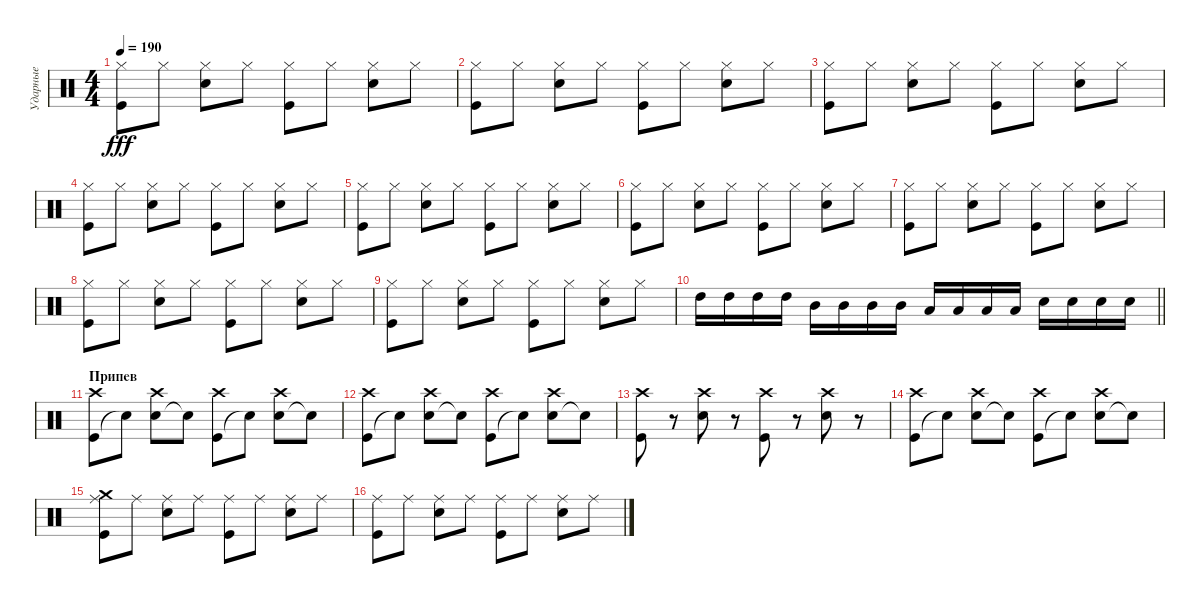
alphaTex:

\track ("Ударные" "Ударные") {instrument percussion}
\staff {score}
\articulation defaults
\ts (4 4)
\tempo 190
\clef neutral
\ks c
("Hi-Hat (closed)" "Kick (hit)").8{dy fff} "Hi-Hat (closed)".8 ("Hi-Hat (closed)" "Electric Snare (hit)").8 "Hi-Hat (closed)".8 ("Hi-Hat (closed)" "Kick (hit)").8 "Hi-Hat (closed)".8 ("Hi-Hat (closed)" "Electric Snare (hit)").8 "Hi-Hat (closed)".8 |
("Hi-Hat (closed)" "Kick (hit)").8 "Hi-Hat (closed)".8 ("Hi-Hat (closed)" "Electric Snare (hit)").8 "Hi-Hat (closed)".8 ("Hi-Hat (closed)" "Kick (hit)").8 "Hi-Hat (closed)".8 ("Hi-Hat (closed)" "Electric Snare (hit)").8 "Hi-Hat (closed)".8 |
("Hi-Hat (closed)" "Kick (hit)").8 "Hi-Hat (closed)".8 ("Hi-Hat (closed)" "Electric Snare (hit)").8 "Hi-Hat (closed)".8 ("Hi-Hat (closed)" "Kick (hit)").8 "Hi-Hat (closed)".8 ("Hi-Hat (closed)" "Electric Snare (hit)").8 "Hi-Hat (closed)".8 |
("Hi-Hat (closed)" "Kick (hit)").8 "Hi-Hat (closed)".8 ("Hi-Hat (closed)" "Electric Snare (hit)").8 "Hi-Hat (closed)".8 ("Hi-Hat (closed)" "Kick (hit)").8 "Hi-Hat (closed)".8 ("Hi-Hat (closed)" "Electric Snare (hit)").8 "Hi-Hat (closed)".8 |
("Hi-Hat (closed)" "Kick (hit)").8 "Hi-Hat (closed)".8 ("Hi-Hat (closed)" "Electric Snare (hit)").8 "Hi-Hat (closed)".8 ("Hi-Hat (closed)" "Kick (hit)").8 "Hi-Hat (closed)".8 ("Hi-Hat (closed)" "Electric Snare (hit)").8 "Hi-Hat (closed)".8 |
("Hi-Hat (closed)" "Kick (hit)").8 "Hi-Hat (closed)".8 ("Hi-Hat (closed)" "Electric Snare (hit)").8 "Hi-Hat (closed)".8 ("Hi-Hat (closed)" "Kick (hit)").8 "Hi-Hat (closed)".8 ("Hi-Hat (closed)" "Electric Snare (hit)").8 "Hi-Hat (closed)".8 |
("Hi-Hat (closed)" "Kick (hit)").8 "Hi-Hat (closed)".8 ("Hi-Hat (closed)" "Electric Snare (hit)").8 "Hi-Hat (closed)".8 ("Hi-Hat (closed)" "Kick (hit)").8 "Hi-Hat (closed)".8 ("Hi-Hat (closed)" "Electric Snare (hit)").8 "Hi-Hat (closed)".8 |
("Hi-Hat (closed)" "Kick (hit)").8 "Hi-Hat (closed)".8 ("Hi-Hat (closed)" "Electric Snare (hit)").8 "Hi-Hat (closed)".8 ("Hi-Hat (closed)" "Kick (hit)").8 "Hi-Hat (closed)".8 ("Hi-Hat (closed)" "Electric Snare (hit)").8 "Hi-Hat (closed)".8 |
("Hi-Hat (closed)" "Kick (hit)").8 "Hi-Hat (closed)".8 ("Hi-Hat (closed)" "Electric Snare (hit)").8 "Hi-Hat (closed)".8 ("Hi-Hat (closed)" "Kick (hit)").8 "Hi-Hat (closed)".8 ("Hi-Hat (closed)" "Electric Snare (hit)").8 "Hi-Hat (closed)".8 |
\barLineRight lightlight "High Tom (hit)".16 "High Tom (hit)".16 "High Tom (hit)".16 "High Tom (hit)".16 "Mid Tom (hit)".16 "Mid Tom (hit)".16 "Mid Tom (hit)".16 "Mid Tom (hit)".16 "Low Tom (hit)".16 "Low Tom (hit)".16 "Low Tom (hit)".16 "Low Tom (hit)".16 "Electric Snare (hit)".16 "Electric Snare (hit)".16 "Electric Snare (hit)".16 "Electric Snare (hit)".16
|
\section ("" "Припев")
("Kick (hit)" "Crash high (hit)").8 "Snare (hit)"{t}.8 ("Electric Snare (hit)" "Crash high (hit)").8 "Snare (hit)"{t}.8 ("Kick (hit)" "Crash high (hit)").8 "Snare (hit)"{t}.8 ("Electric Snare (hit)" "Crash high (hit)").8 "Snare (hit)"{t}.8 |
("Kick (hit)" "Crash high (hit)").8 "Snare (hit)"{t}.8 ("Electric Snare (hit)" "Crash high (hit)").8 "Snare (hit)"{t}.8 ("Kick (hit)" "Crash high (hit)").8 "Snare (hit)"{t}.8 ("Electric Snare (hit)" "Crash high (hit)").8 "Snare (hit)"{t}.8 |
("Kick (hit)" "Crash high (hit)").8 r.8 ("Electric Snare (hit)" "Crash high (hit)").8 r.8 ("Kick (hit)" "Crash high (hit)").8 r.8 ("Electric Snare (hit)" "Crash high (hit)").8 r.8 |
("Kick (hit)" "Crash high (hit)").8 "Snare (hit)"{t}.8 ("Electric Snare (hit)" "Crash high (hit)").8 "Snare (hit)"{t}.8 ("Kick (hit)" "Crash high (hit)").8 "Snare (hit)"{t}.8 ("Electric Snare (hit)" "Crash high (hit)").8 "Snare (hit)"{t}.8 |
("Kick (hit)" "Ride (middle)" "Crash medium (hit)").8 "Ride (middle)".8 ("Electric Snare (hit)" "Ride (middle)").8 "Ride (middle)".8 ("Kick (hit)" "Ride (middle)").8 "Ride (middle)".8 ("Electric Snare (hit)" "Ride (middle)").8 "Ride (middle)".8 |
("Kick (hit)" "Ride (middle)").8 "Ride (middle)".8 ("Electric Snare (hit)" "Ride (middle)").8 "Ride (middle)".8 ("Kick (hit)" "Ride (middle)").8 "Ride (middle)".8 ("Electric Snare (hit)" "Ride (middle)").8 "Ride (middle)".8
